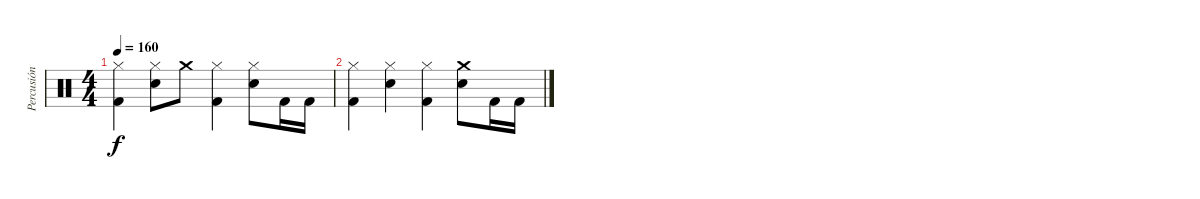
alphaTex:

\track ("Percusión" "Percusión") {instrument percussion}
\staff {score}
\articulation defaults
\ts (4 4)
\tempo 160
\clef neutral
\ks c
("Hi-Hat (closed)" "Kick (hit) 2").4{dy f} ("Hi-Hat (closed)" "Electric Snare (hit)").8 "Crash medium (hit)".8 ("Hi-Hat (closed)" "Kick (hit) 2").4 ("Hi-Hat (closed)" "Electric Snare (hit)").8 "Kick (hit) 2".16 "Kick (hit) 2".16 |
("Hi-Hat (closed)" "Kick (hit) 2").4 ("Hi-Hat (closed)" "Electric Snare (hit)").4 ("Hi-Hat (closed)" "Kick (hit) 2").4 ("Crash medium (hit)" "Electric Snare (hit)").8 "Kick (hit) 2".16 "Kick (hit) 2".16
